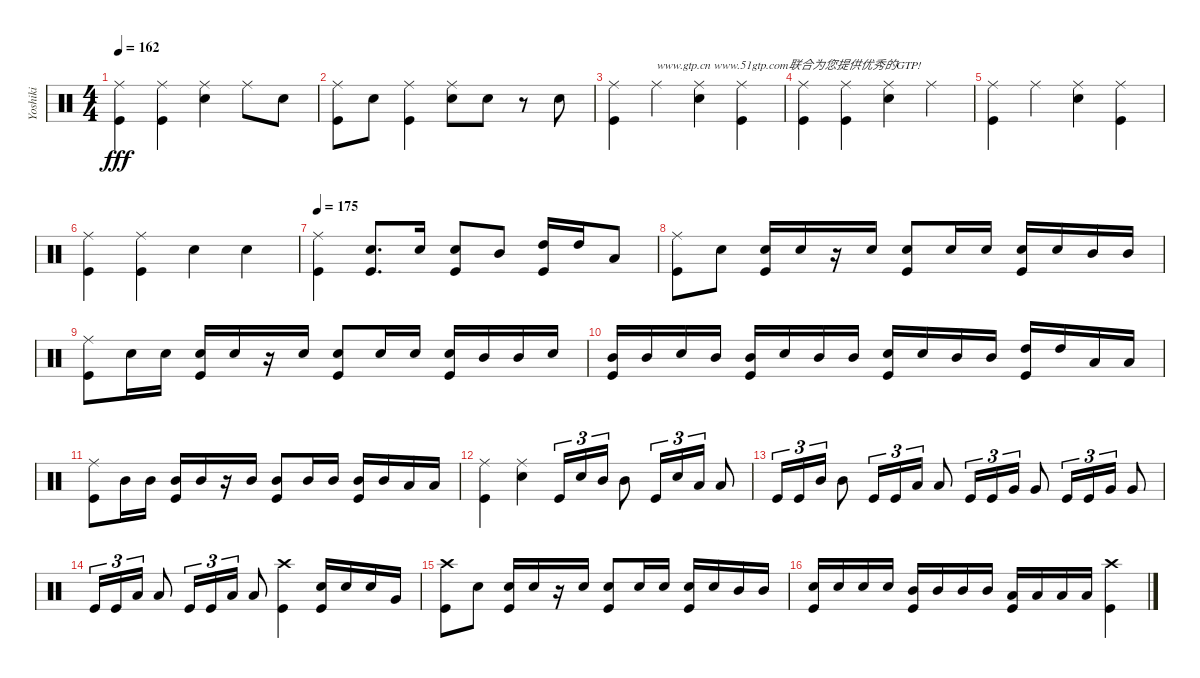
\track ("Yoshiki" "Yoshiki") {instrument percussion}
\staff {score}
\articulation defaults
\ts (4 4)
\tempo 162
\clef neutral
\ks c
("Ride (middle)" "Kick (hit)").4{dy fff} ("Ride (middle)" "Kick (hit)").4 ("Ride (middle)" "Snare (hit) 2").4 "Ride (middle)".8 "Snare (hit) 2".8 |
("Ride (middle)" "Kick (hit)").8 "Snare (hit) 2".8 ("Ride (middle)" "Kick (hit)").4 ("Ride (middle)" "Snare (hit) 2").8 "Snare (hit) 2".8 r.8 "Snare (hit) 2".8 |
("Ride (middle)" "Kick (hit)").4 "Ride (middle)".4{txt "www.gtp.cn www.51gtp.com联合为您提供优秀的GTP!"} ("Ride (middle)" "Snare (hit) 2").4 ("Ride (middle)" "Kick (hit)").4 |
("Ride (middle)" "Kick (hit)").4 ("Ride (middle)" "Kick (hit)").4 ("Ride (middle)" "Snare (hit) 2").4 "Ride (middle)".4 |
("Ride (middle)" "Kick (hit)").4 "Ride (middle)".4 ("Ride (middle)" "Snare (hit) 2").4 ("Ride (middle)" "Kick (hit)").4 |
("Ride (middle)" "Kick (hit)").4 ("Ride (middle)" "Kick (hit)").4 "Snare (hit) 2".4 "Snare (hit) 2".4 |
\tempo 175
("Ride (middle)" "Kick (hit)").4 ("Snare (hit) 2" "Kick (hit)").8{d} "Snare (hit) 2".16 ("Snare (hit) 2" "Kick (hit)").8 "Mid Tom (hit)".8 ("High Tom (hit)" "Kick (hit)").16 "High Tom (hit)".16 "Low Tom (hit)".8 |
("Ride (middle)" "Kick (hit)").8 "Snare (hit) 2".8 ("Snare (hit) 2" "Kick (hit)").16 "Snare (hit) 2".16 r.16 "Snare (hit) 2".16 ("Snare (hit) 2" "Kick (hit)").8 "Snare (hit) 2".16 "Snare (hit) 2".16 ("Snare (hit) 2" "Kick (hit)").16 "Snare (hit) 2".16 "Mid Tom (hit)".16 "Mid Tom (hit)".16 |
("Ride (middle)" "Kick (hit)").8 "Snare (hit) 2".16 "Snare (hit) 2".16 ("Snare (hit) 2" "Kick (hit)").16 "Snare (hit) 2".16 r.16 "Snare (hit) 2".16 ("Snare (hit) 2" "Kick (hit)").8 "Snare (hit) 2".16 "Snare (hit) 2".16 ("Snare (hit) 2" "Kick (hit)").16 "Mid Tom (hit)".16 "Mid Tom (hit)".16 "Snare (hit) 2".16 |
("Mid Tom (hit)" "Kick (hit)").16 "Mid Tom (hit)".16 "Snare (hit) 2".16 "Mid Tom (hit)".16 ("Mid Tom (hit)" "Kick (hit)").16 "Snare (hit) 2".16 "Mid Tom (hit)".16 "Mid Tom (hit)".16 ("Snare (hit) 2" "Kick (hit)").16 "Snare (hit) 2".16 "Mid Tom (hit)".16 "Mid Tom (hit)".16 ("High Tom (hit)" "Kick (hit)").16 "High Tom (hit)".16 "Low Tom (hit)".16 "Low Tom (hit)".16 |
("Ride (middle)" "Kick (hit)").8 "Mid Tom (hit)".16 "Mid Tom (hit)".16 ("Mid Tom (hit)" "Kick (hit)").16 "Mid Tom (hit)".16 r.16 "Mid Tom (hit)".16 ("Mid Tom (hit)" "Kick (hit)").8 "Mid Tom (hit)".16 "Mid Tom (hit)".16 ("Mid Tom (hit)" "Kick (hit)").16 "Mid Tom (hit)".16 "Low Tom (hit)".16 "Low Tom (hit)".16 |
("Ride (middle)" "Kick (hit)").4 ("Ride (middle)" "Snare (hit) 2").4 "Kick (hit)".16{tu (3 2)} "Snare (hit) 2".16{tu (3 2)} "Mid Tom (hit)".16{tu (3 2)} "Mid Tom (hit)".8 "Kick (hit)".16{tu (3 2)} "Snare (hit) 2".16{tu (3 2)} "Low Tom (hit)".16{tu (3 2)} "Low Tom (hit)".8 |
"Kick (hit)".16{tu (3 2)} "Kick (hit)".16{tu (3 2)} "Mid Tom (hit)".16{tu (3 2)} "Mid Tom (hit)".8 "Kick (hit)".16{tu (3 2)} "Kick (hit)".16{tu (3 2)} "Low Tom (hit)".16{tu (3 2)} "Low Tom (hit)".8 "Kick (hit)".16{tu (3 2)} "Kick (hit)".16{tu (3 2)} "Very Low Tom (hit)".16{tu (3 2)} "Very Low Tom (hit)".8 "Kick (hit)".16{tu (3 2)} "Kick (hit)".16{tu (3 2)} "Very Low Tom (hit)".16{tu (3 2)} "Very Low Tom (hit)".8 |
"Kick (hit)".16{tu (3 2)} "Kick (hit)".16{tu (3 2)} "Low Floor Tom (hit)".16{tu (3 2)} "Low Floor Tom (hit)".8 "Kick (hit)".16{tu (3 2)} "Kick (hit)".16{tu (3 2)} "Low Floor Tom (hit)".16{tu (3 2)} "Low Floor Tom (hit)".8 ("Crash high (hit)" "Kick (hit)").4 ("Snare (hit) 2" "Kick (hit)").16 "Snare (hit) 2".16 "Snare (hit) 2".16 "Very Low Tom (hit)".16 |
("Crash high (hit)" "Kick (hit)").8 "Snare (hit) 2".8 ("Snare (hit) 2" "Kick (hit)").16 "Snare (hit) 2".16 r.16 "Snare (hit) 2".16 ("Snare (hit) 2" "Kick (hit)").8 "Snare (hit) 2".16 "Snare (hit) 2".16 ("Snare (hit) 2" "Kick (hit)").16 "Snare (hit) 2".16 "Mid Tom (hit)".16 "Mid Tom (hit)".16 |
("Snare (hit) 2" "Kick (hit)").16 "Snare (hit) 2".16 "Snare (hit) 2".16 "Snare (hit) 2".16 ("Mid Tom (hit)" "Kick (hit)").16 "Mid Tom (hit)".16 "Mid Tom (hit)".16 "Mid Tom (hit)".16 ("Low Tom (hit)" "Kick (hit)").16 "Low Tom (hit)".16 "Low Tom (hit)".16 "Low Tom (hit)".16 ("Crash high (hit)" "Kick (hit)").4
